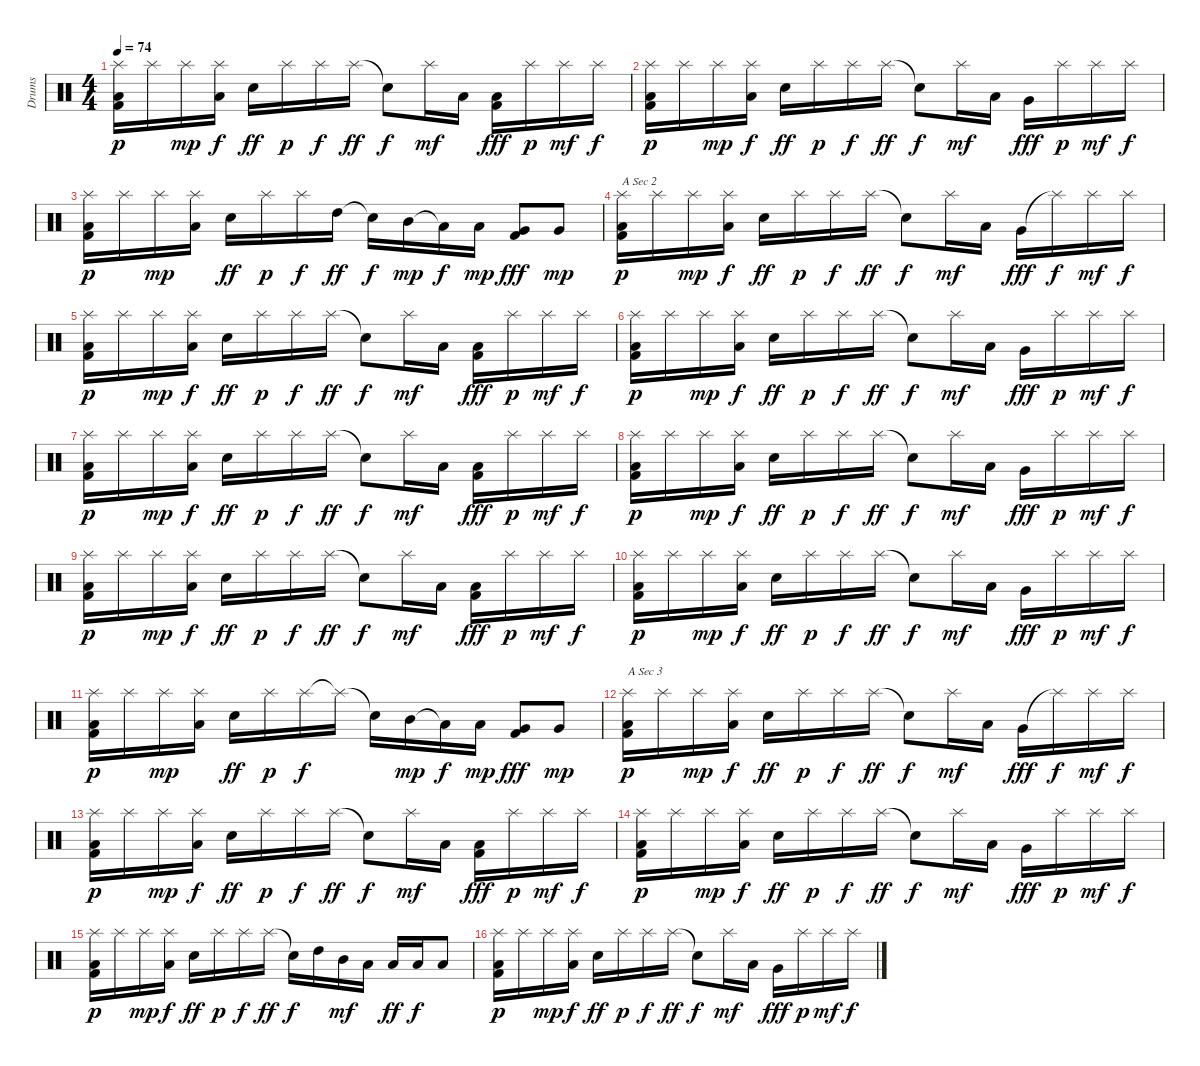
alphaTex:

\track ("Drums" "Drums") {instrument percussion}
\staff {score}
\articulation defaults
\ts (4 4)
\tempo 74
\clef neutral
\ks c
("Low Tom (hit)" "Kick (hit) 2" "Splash (hit)").16{dy p} "Splash (hit)".16 "Splash (hit)".16{dy mp} ("Splash (hit)" "Low Tom (hit)").16{dy f} "Electric Snare (hit)".16{dy ff} "Splash (hit)".16{dy p} "Splash (hit)".16{dy f} "Splash (hit)".16{dy ff} "Snare (hit)"{t}.8{dy f} "Splash (hit)".16{dy mf} "Low Tom (hit)".16 ("Low Floor Tom (hit)" "Kick (hit) 2").16{dy fff} "Splash (hit)".16{dy p} "Splash (hit)".16{dy mf} "Splash (hit)".16{dy f} |
("Low Tom (hit)" "Kick (hit) 2" "Splash (hit)").16{dy p} "Splash (hit)".16 "Splash (hit)".16{dy mp} ("Splash (hit)" "Low Tom (hit)").16{dy f} "Electric Snare (hit)".16{dy ff} "Splash (hit)".16{dy p} "Splash (hit)".16{dy f} "Splash (hit)".16{dy ff} "Snare (hit)"{t}.8{dy f} "Splash (hit)".16{dy mf} "Low Tom (hit)".16 "Very Low Tom (hit)".16{dy fff} "Splash (hit)".16{dy p} "Splash (hit)".16{dy mf} "Splash (hit)".16{dy f} |
("Low Tom (hit)" "Kick (hit) 2" "Splash (hit)").16{dy p} "Splash (hit)".16 "Splash (hit)".16{dy mp} ("Splash (hit)" "Low Tom (hit)").16 "Electric Snare (hit)".16{dy ff} "Splash (hit)".16{dy p} "Splash (hit)".16{dy f} "High Tom (hit)".16{dy ff} "Snare (hit)"{t}.16{dy f} "Mid Tom (hit)".16{dy mp} "Low Tom (hit)"{t}.16{dy f} "Low Tom (hit)".16{dy mp} ("Very Low Tom (hit)" "Kick (hit) 2").8{dy fff} "Very Low Tom (hit)".8{dy mp} |
("Low Tom (hit)" "Kick (hit) 2" "Splash (hit)").16{txt "A Sec 2" dy p} "Splash (hit)".16 "Splash (hit)".16{dy mp} ("Splash (hit)" "Low Tom (hit)").16{dy f} "Electric Snare (hit)".16{dy ff} "Splash (hit)".16{dy p} "Splash (hit)".16{dy f} "Splash (hit)".16{dy ff} "Snare (hit)"{t}.8{dy f} "Splash (hit)".16{dy mf} "Low Tom (hit)".16 "Very Low Tom (hit)".16{dy fff} "Splash (hit)"{t}.16{dy f} "Splash (hit)".16{dy mf} "Splash (hit)".16{dy f} |
("Low Tom (hit)" "Kick (hit) 2" "Splash (hit)").16{dy p} "Splash (hit)".16 "Splash (hit)".16{dy mp} ("Splash (hit)" "Low Tom (hit)").16{dy f} "Electric Snare (hit)".16{dy ff} "Splash (hit)".16{dy p} "Splash (hit)".16{dy f} "Splash (hit)".16{dy ff} "Snare (hit)"{t}.8{dy f} "Splash (hit)".16{dy mf} "Low Tom (hit)".16 ("Low Floor Tom (hit)" "Kick (hit) 2").16{dy fff} "Splash (hit)".16{dy p} "Splash (hit)".16{dy mf} "Splash (hit)".16{dy f} |
("Low Tom (hit)" "Kick (hit) 2" "Splash (hit)").16{dy p} "Splash (hit)".16 "Splash (hit)".16{dy mp} ("Splash (hit)" "Low Tom (hit)").16{dy f} "Electric Snare (hit)".16{dy ff} "Splash (hit)".16{dy p} "Splash (hit)".16{dy f} "Splash (hit)".16{dy ff} "Snare (hit)"{t}.8{dy f} "Splash (hit)".16{dy mf} "Low Tom (hit)".16 "Very Low Tom (hit)".16{dy fff} "Splash (hit)".16{dy p} "Splash (hit)".16{dy mf} "Splash (hit)".16{dy f} |
("Low Tom (hit)" "Kick (hit) 2" "Splash (hit)").16{dy p} "Splash (hit)".16 "Splash (hit)".16{dy mp} ("Splash (hit)" "Low Tom (hit)").16{dy f} "Electric Snare (hit)".16{dy ff} "Splash (hit)".16{dy p} "Splash (hit)".16{dy f} "Splash (hit)".16{dy ff} "Snare (hit)"{t}.8{dy f} "Splash (hit)".16{dy mf} "Low Tom (hit)".16 ("Low Floor Tom (hit)" "Kick (hit) 2").16{dy fff} "Splash (hit)".16{dy p} "Splash (hit)".16{dy mf} "Splash (hit)".16{dy f} |
("Low Tom (hit)" "Kick (hit) 2" "Splash (hit)").16{dy p} "Splash (hit)".16 "Splash (hit)".16{dy mp} ("Splash (hit)" "Low Tom (hit)").16{dy f} "Electric Snare (hit)".16{dy ff} "Splash (hit)".16{dy p} "Splash (hit)".16{dy f} "Splash (hit)".16{dy ff} "Snare (hit)"{t}.8{dy f} "Splash (hit)".16{dy mf} "Low Tom (hit)".16 "Very Low Tom (hit)".16{dy fff} "Splash (hit)".16{dy p} "Splash (hit)".16{dy mf} "Splash (hit)".16{dy f} |
("Low Tom (hit)" "Kick (hit) 2" "Splash (hit)").16{dy p} "Splash (hit)".16 "Splash (hit)".16{dy mp} ("Splash (hit)" "Low Tom (hit)").16{dy f} "Electric Snare (hit)".16{dy ff} "Splash (hit)".16{dy p} "Splash (hit)".16{dy f} "Splash (hit)".16{dy ff} "Snare (hit)"{t}.8{dy f} "Splash (hit)".16{dy mf} "Low Tom (hit)".16 ("Low Floor Tom (hit)" "Kick (hit) 2").16{dy fff} "Splash (hit)".16{dy p} "Splash (hit)".16{dy mf} "Splash (hit)".16{dy f} |
("Low Tom (hit)" "Kick (hit) 2" "Splash (hit)").16{dy p} "Splash (hit)".16 "Splash (hit)".16{dy mp} ("Splash (hit)" "Low Tom (hit)").16{dy f} "Electric Snare (hit)".16{dy ff} "Splash (hit)".16{dy p} "Splash (hit)".16{dy f} "Splash (hit)".16{dy ff} "Snare (hit)"{t}.8{dy f} "Splash (hit)".16{dy mf} "Low Tom (hit)".16 "Very Low Tom (hit)".16{dy fff} "Splash (hit)".16{dy p} "Splash (hit)".16{dy mf} "Splash (hit)".16{dy f} |
("Low Tom (hit)" "Kick (hit) 2" "Splash (hit)").16{dy p} "Splash (hit)".16 "Splash (hit)".16{dy mp} ("Splash (hit)" "Low Tom (hit)").16 "Electric Snare (hit)".16{dy ff} "Splash (hit)".16{dy p} "Splash (hit)".16{dy f} "Splash (hit)"{t}.16 "Snare (hit)"{t}.16 "Mid Tom (hit)".16{dy mp} "Low Tom (hit)"{t}.16{dy f} "Low Tom (hit)".16{dy mp} ("Very Low Tom (hit)" "Kick (hit) 2").8{dy fff} "Very Low Tom (hit)".8{dy mp} |
("Low Tom (hit)" "Kick (hit) 2" "Splash (hit)").16{txt "A Sec 3" dy p} "Splash (hit)".16 "Splash (hit)".16{dy mp} ("Splash (hit)" "Low Tom (hit)").16{dy f} "Electric Snare (hit)".16{dy ff} "Splash (hit)".16{dy p} "Splash (hit)".16{dy f} "Splash (hit)".16{dy ff} "Snare (hit)"{t}.8{dy f} "Splash (hit)".16{dy mf} "Low Tom (hit)".16 "Very Low Tom (hit)".16{dy fff} "Splash (hit)"{t}.16{dy f} "Splash (hit)".16{dy mf} "Splash (hit)".16{dy f} |
("Low Tom (hit)" "Kick (hit) 2" "Splash (hit)").16{dy p} "Splash (hit)".16 "Splash (hit)".16{dy mp} ("Splash (hit)" "Low Tom (hit)").16{dy f} "Electric Snare (hit)".16{dy ff} "Splash (hit)".16{dy p} "Splash (hit)".16{dy f} "Splash (hit)".16{dy ff} "Snare (hit)"{t}.8{dy f} "Splash (hit)".16{dy mf} "Low Tom (hit)".16 ("Low Floor Tom (hit)" "Kick (hit) 2").16{dy fff} "Splash (hit)".16{dy p} "Splash (hit)".16{dy mf} "Splash (hit)".16{dy f} |
("Low Tom (hit)" "Kick (hit) 2" "Splash (hit)").16{dy p} "Splash (hit)".16 "Splash (hit)".16{dy mp} ("Splash (hit)" "Low Tom (hit)").16{dy f} "Electric Snare (hit)".16{dy ff} "Splash (hit)".16{dy p} "Splash (hit)".16{dy f} "Splash (hit)".16{dy ff} "Snare (hit)"{t}.8{dy f} "Splash (hit)".16{dy mf} "Low Tom (hit)".16 "Very Low Tom (hit)".16{dy fff} "Splash (hit)".16{dy p} "Splash (hit)".16{dy mf} "Splash (hit)".16{dy f} |
("Low Tom (hit)" "Kick (hit) 2" "Splash (hit)").16{dy p} "Splash (hit)".16 "Splash (hit)".16{dy mp} ("Splash (hit)" "Low Tom (hit)").16{dy f} "Electric Snare (hit)".16{dy ff} "Splash (hit)".16{dy p} "Splash (hit)".16{dy f} "Splash (hit)".16{dy ff} "Snare (hit)"{t}.16{dy f} "High Tom (hit)".16 "Mid Tom (hit)".16{dy mf} "Low Tom (hit)".16 "Low Floor Tom (hit)".16{dy ff} "Low Tom (hit)".16{dy f} "Low Floor Tom (hit)".8 |
("Low Tom (hit)" "Kick (hit) 2" "Splash (hit)").16{dy p} "Splash (hit)".16 "Splash (hit)".16{dy mp} ("Splash (hit)" "Low Tom (hit)").16{dy f} "Electric Snare (hit)".16{dy ff} "Splash (hit)".16{dy p} "Splash (hit)".16{dy f} "Splash (hit)".16{dy ff} "Snare (hit)"{t}.8{dy f} "Splash (hit)".16{dy mf} "Low Tom (hit)".16 "Very Low Tom (hit)".16{dy fff} "Splash (hit)".16{dy p} "Splash (hit)".16{dy mf} "Splash (hit)".16{dy f}
